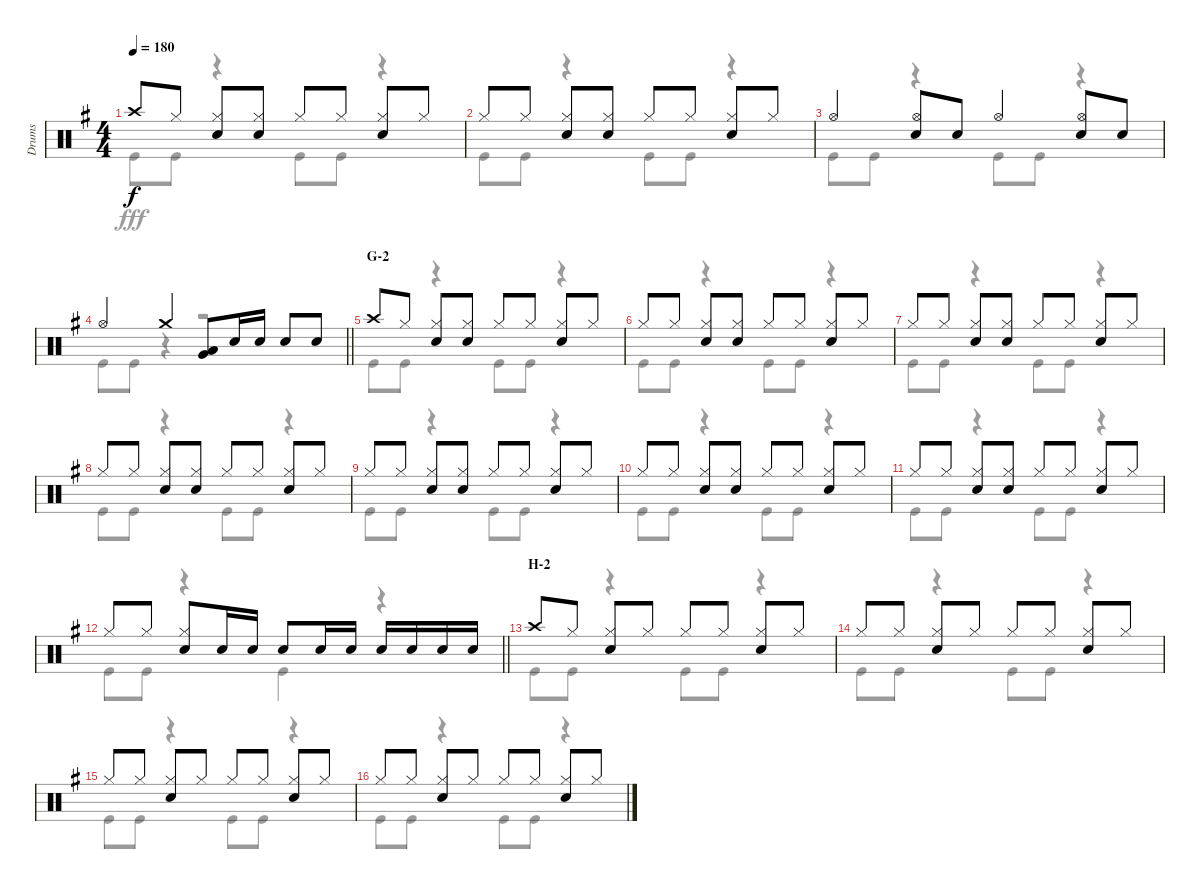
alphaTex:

\track ("Drums" "Drums") {instrument percussion}
\staff {score}
\articulation defaults
\voice
\ts (4 4)
\tempo 180
\clef neutral
\ks g "Crash high (hit)".8{dy f} "Hi-Hat (closed)".8
("Hi-Hat (closed)" "Snare (hit) 2").8 ("Hi-Hat (closed)" "Snare (hit) 2").8 "Hi-Hat (closed)".8 "Hi-Hat (closed)".8 ("Hi-Hat (closed)" "Snare (hit) 2").8 "Hi-Hat (closed)".8 |
"Hi-Hat (closed)".8 "Hi-Hat (closed)".8 ("Hi-Hat (closed)" "Snare (hit) 2").8 ("Hi-Hat (closed)" "Snare (hit) 2").8 "Hi-Hat (closed)".8 "Hi-Hat (closed)".8 ("Hi-Hat (closed)" "Snare (hit) 2").8 "Hi-Hat (closed)".8 |
"Hi-Hat (open)".4 ("Hi-Hat (open)" "Snare (hit) 2").8 "Snare (hit) 2".8 "Hi-Hat (open)".4 ("Hi-Hat (open)" "Snare (hit) 2").8 "Snare (hit) 2".8 |
\barLineRight lightlight "Hi-Hat (open)".4 "Crash medium (hit)".4
("Very Low Tom (hit)" "Low Floor Tom (hit)").8 "Snare (hit) 2".16 "Snare (hit) 2".16 "Snare (hit) 2".8 "Snare (hit) 2".8 |
\section ("" "G-2")
"Crash high (hit)".8 "Hi-Hat (closed)".8 ("Hi-Hat (closed)" "Snare (hit) 2").8 ("Hi-Hat (closed)" "Snare (hit) 2").8 "Hi-Hat (closed)".8 "Hi-Hat (closed)".8 ("Hi-Hat (closed)" "Snare (hit) 2").8 "Hi-Hat (closed)".8 |
"Hi-Hat (closed)".8 "Hi-Hat (closed)".8 ("Hi-Hat (closed)" "Snare (hit) 2").8 ("Hi-Hat (closed)" "Snare (hit) 2").8 "Hi-Hat (closed)".8 "Hi-Hat (closed)".8 ("Hi-Hat (closed)" "Snare (hit) 2").8 "Hi-Hat (closed)".8 |
"Hi-Hat (closed)".8 "Hi-Hat (closed)".8 ("Hi-Hat (closed)" "Snare (hit) 2").8 ("Hi-Hat (closed)" "Snare (hit) 2").8 "Hi-Hat (closed)".8 "Hi-Hat (closed)".8 ("Hi-Hat (closed)" "Snare (hit) 2").8 "Hi-Hat (closed)".8 |
"Hi-Hat (closed)".8 "Hi-Hat (closed)".8 ("Hi-Hat (closed)" "Snare (hit) 2").8 ("Hi-Hat (closed)" "Snare (hit) 2").8 "Hi-Hat (closed)".8 "Hi-Hat (closed)".8 ("Hi-Hat (closed)" "Snare (hit) 2").8 "Hi-Hat (closed)".8 |
"Hi-Hat (closed)".8 "Hi-Hat (closed)".8 ("Hi-Hat (closed)" "Snare (hit) 2").8 ("Hi-Hat (closed)" "Snare (hit) 2").8 "Hi-Hat (closed)".8 "Hi-Hat (closed)".8 ("Hi-Hat (closed)" "Snare (hit) 2").8 "Hi-Hat (closed)".8 |
"Hi-Hat (closed)".8 "Hi-Hat (closed)".8 ("Hi-Hat (closed)" "Snare (hit) 2").8 ("Hi-Hat (closed)" "Snare (hit) 2").8 "Hi-Hat (closed)".8 "Hi-Hat (closed)".8 ("Hi-Hat (closed)" "Snare (hit) 2").8 "Hi-Hat (closed)".8 |
"Hi-Hat (closed)".8 "Hi-Hat (closed)".8 ("Hi-Hat (closed)" "Snare (hit) 2").8 ("Hi-Hat (closed)" "Snare (hit) 2").8 "Hi-Hat (closed)".8 "Hi-Hat (closed)".8 ("Hi-Hat (closed)" "Snare (hit) 2").8 "Hi-Hat (closed)".8 |
\barLineRight lightlight "Hi-Hat (closed)".8 "Hi-Hat (closed)".8
("Hi-Hat (closed)" "Snare (hit) 2").8 "Snare (hit) 2".16 "Snare (hit) 2".16 "Snare (hit) 2".8 "Snare (hit) 2".16 "Snare (hit) 2".16 "Snare (hit) 2".16 "Snare (hit) 2".16 "Snare (hit) 2".16 "Snare (hit) 2".16 |
\section ("" "H-2")
"Crash high (hit)".8 "Hi-Hat (closed)".8 ("Hi-Hat (closed)" "Snare (hit) 2").8 "Hi-Hat (closed)".8 "Hi-Hat (closed)".8 "Hi-Hat (closed)".8 ("Hi-Hat (closed)" "Snare (hit) 2").8 "Hi-Hat (closed)".8 |
"Hi-Hat (closed)".8 "Hi-Hat (closed)".8 ("Hi-Hat (closed)" "Snare (hit) 2").8 "Hi-Hat (closed)".8 "Hi-Hat (closed)".8 "Hi-Hat (closed)".8 ("Hi-Hat (closed)" "Snare (hit) 2").8 "Hi-Hat (closed)".8 |
"Hi-Hat (closed)".8 "Hi-Hat (closed)".8 ("Hi-Hat (closed)" "Snare (hit) 2").8 "Hi-Hat (closed)".8 "Hi-Hat (closed)".8 "Hi-Hat (closed)".8 ("Hi-Hat (closed)" "Snare (hit) 2").8 "Hi-Hat (closed)".8 |
"Hi-Hat (closed)".8 "Hi-Hat (closed)".8 ("Hi-Hat (closed)" "Snare (hit) 2").8 "Hi-Hat (closed)".8 "Hi-Hat (closed)".8 "Hi-Hat (closed)".8 ("Hi-Hat (closed)" "Snare (hit) 2").8 "Hi-Hat (closed)".8
\voice
\clef neutral
\ottava regular
\simile none
\ks g "Kick (hit)".8{dy fff} "Kick (hit)".8
r.4 "Kick (hit)".8 "Kick (hit)".8 r.4 |
"Kick (hit)".8 "Kick (hit)".8 r.4 "Kick (hit)".8 "Kick (hit)".8 r.4 |
"Kick (hit)".8 "Kick (hit)".8 r.4 "Kick (hit)".8 "Kick (hit)".8 r.4 |
\barLineRight lightlight "Kick (hit)".8 "Kick (hit)".8
r.4 r.2 |
"Kick (hit)".8 "Kick (hit)".8 r.4 "Kick (hit)".8 "Kick (hit)".8 r.4 |
"Kick (hit)".8 "Kick (hit)".8 r.4 "Kick (hit)".8 "Kick (hit)".8 r.4 |
"Kick (hit)".8 "Kick (hit)".8 r.4 "Kick (hit)".8 "Kick (hit)".8 r.4 |
"Kick (hit)".8 "Kick (hit)".8 r.4 "Kick (hit)".8 "Kick (hit)".8 r.4 |
"Kick (hit)".8 "Kick (hit)".8 r.4 "Kick (hit)".8 "Kick (hit)".8 r.4 |
"Kick (hit)".8 "Kick (hit)".8 r.4 "Kick (hit)".8 "Kick (hit)".8 r.4 |
"Kick (hit)".8 "Kick (hit)".8 r.4 "Kick (hit)".8 "Kick (hit)".8 r.4 |
\barLineRight lightlight "Kick (hit)".8 "Kick (hit)".8
r.4 "Kick (hit)".4 r.4 |
"Kick (hit)".8 "Kick (hit)".8 r.4 "Kick (hit)".8 "Kick (hit)".8 r.4 |
"Kick (hit)".8 "Kick (hit)".8 r.4 "Kick (hit)".8 "Kick (hit)".8 r.4 |
"Kick (hit)".8 "Kick (hit)".8 r.4 "Kick (hit)".8 "Kick (hit)".8 r.4 |
"Kick (hit)".8 "Kick (hit)".8 r.4 "Kick (hit)".8 "Kick (hit)".8 r.4
